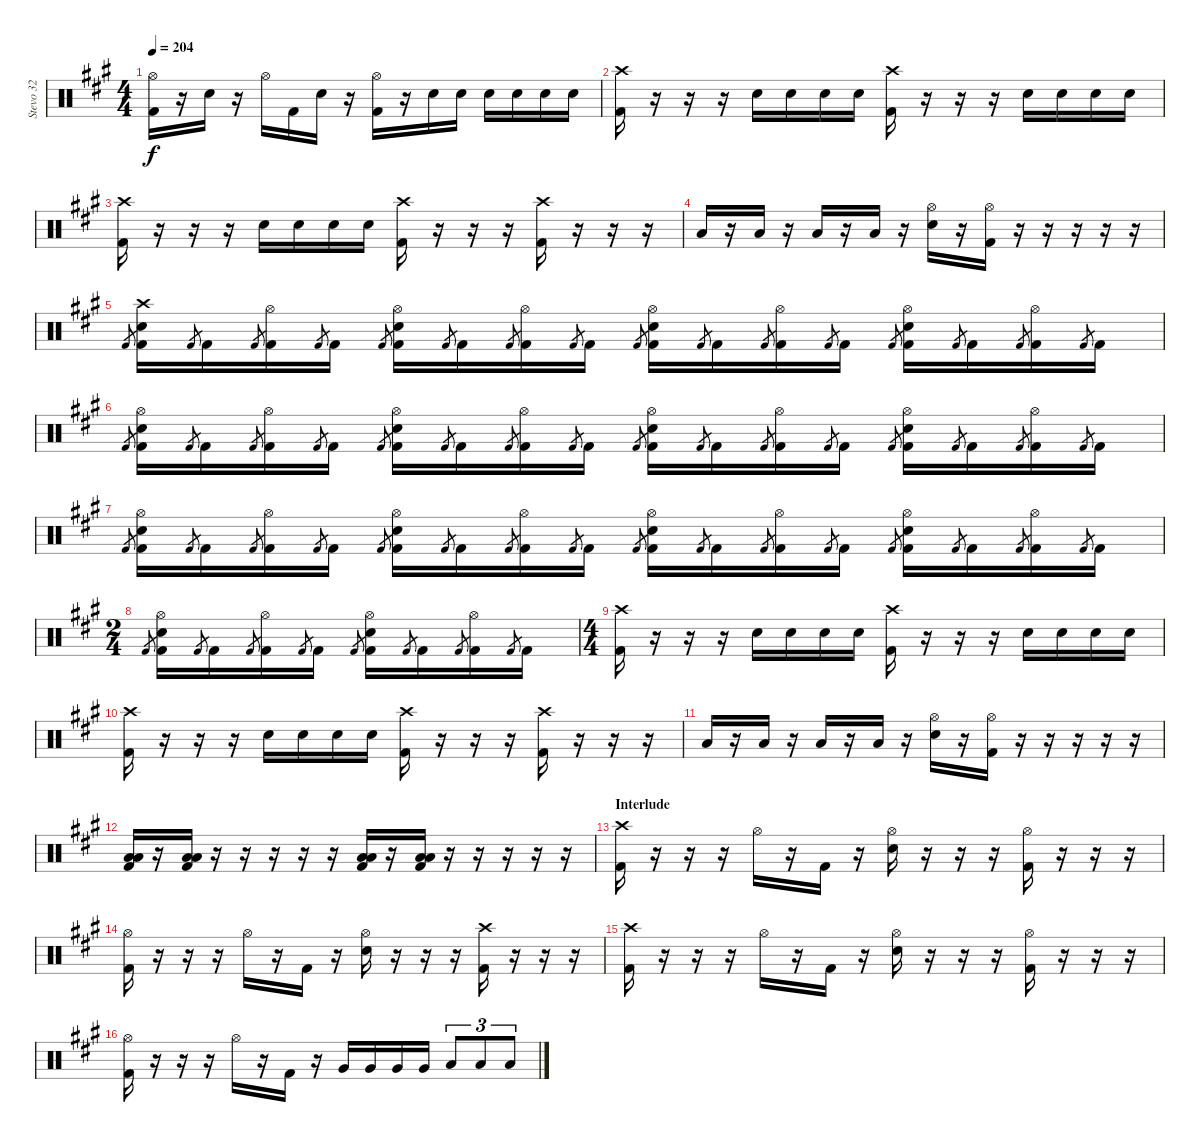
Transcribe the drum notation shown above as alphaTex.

\track ("Stevo 32" "Stevo 32") {instrument percussion}
\staff {score}
\articulation defaults
\ts (4 4)
\tempo 204
\clef neutral
\ks a
("Hi-Hat (open)" "Kick (hit) 2").16{dy f} r.16 "Snare (hit) 2".16 r.16 "Hi-Hat (open)".16 "Kick (hit) 2".16 "Snare (hit) 2".16 r.16 ("Hi-Hat (open)" "Kick (hit) 2").16 r.16 "Snare (hit) 2".16 "Snare (hit) 2".16 "Snare (hit) 2".16 "Snare (hit) 2".16 "Snare (hit) 2".16 "Snare (hit) 2".16 |
("Crash high (hit)" "Kick (hit) 2").16 r.16 r.16 r.16 "Snare (hit) 2".16 "Snare (hit) 2".16 "Snare (hit) 2".16 "Snare (hit) 2".16 ("Crash high (hit)" "Kick (hit) 2").16 r.16 r.16 r.16 "Snare (hit) 2".16 "Snare (hit) 2".16 "Snare (hit) 2".16 "Snare (hit) 2".16 |
("Crash high (hit)" "Kick (hit) 2").16 r.16 r.16 r.16 "Snare (hit) 2".16 "Snare (hit) 2".16 "Snare (hit) 2".16 "Snare (hit) 2".16 ("Crash high (hit)" "Kick (hit) 2").16 r.16 r.16 r.16 ("Crash high (hit)" "Kick (hit) 2").16 r.16 r.16 r.16 |
"Low Floor Tom (hit)".16 r.16 "Low Floor Tom (hit)".16 r.16 "Low Floor Tom (hit)".16 r.16 "Low Floor Tom (hit)".16 r.16 ("Hi-Hat (open)" "Snare (hit) 2").16 r.16 ("Hi-Hat (open)" "Kick (hit) 2").16 r.16 r.16 r.16 r.16 r.16 |
"Kick (hit) 2".8{gr} ("Crash high (hit)" "Snare (hit) 2" "Kick (hit) 2").16 "Kick (hit) 2".8{gr} "Kick (hit) 2".16 "Kick (hit) 2".8{gr} ("Hi-Hat (open)" "Kick (hit) 2").16 "Kick (hit) 2".8{gr} "Kick (hit) 2".16 "Kick (hit) 2".8{gr} ("Hi-Hat (open)" "Snare (hit) 2" "Kick (hit) 2").16 "Kick (hit) 2".8{gr} "Kick (hit) 2".16 "Kick (hit) 2".8{gr} ("Hi-Hat (open)" "Kick (hit) 2").16 "Kick (hit) 2".8{gr} "Kick (hit) 2".16 "Kick (hit) 2".8{gr} ("Hi-Hat (open)" "Snare (hit) 2" "Kick (hit) 2").16 "Kick (hit) 2".8{gr} "Kick (hit) 2".16 "Kick (hit) 2".8{gr} ("Hi-Hat (open)" "Kick (hit) 2").16 "Kick (hit) 2".8{gr} "Kick (hit) 2".16 "Kick (hit) 2".8{gr} ("Hi-Hat (open)" "Snare (hit) 2" "Kick (hit) 2").16 "Kick (hit) 2".8{gr} "Kick (hit) 2".16 "Kick (hit) 2".8{gr} ("Hi-Hat (open)" "Kick (hit) 2").16 "Kick (hit) 2".8{gr} "Kick (hit) 2".16 |
"Kick (hit) 2".8{gr} ("Hi-Hat (open)" "Snare (hit) 2" "Kick (hit) 2").16 "Kick (hit) 2".8{gr} "Kick (hit) 2".16 "Kick (hit) 2".8{gr} ("Hi-Hat (open)" "Kick (hit) 2").16 "Kick (hit) 2".8{gr} "Kick (hit) 2".16 "Kick (hit) 2".8{gr} ("Hi-Hat (open)" "Snare (hit) 2" "Kick (hit) 2").16 "Kick (hit) 2".8{gr} "Kick (hit) 2".16 "Kick (hit) 2".8{gr} ("Hi-Hat (open)" "Kick (hit) 2").16 "Kick (hit) 2".8{gr} "Kick (hit) 2".16 "Kick (hit) 2".8{gr} ("Hi-Hat (open)" "Snare (hit) 2" "Kick (hit) 2").16 "Kick (hit) 2".8{gr} "Kick (hit) 2".16 "Kick (hit) 2".8{gr} ("Hi-Hat (open)" "Kick (hit) 2").16 "Kick (hit) 2".8{gr} "Kick (hit) 2".16 "Kick (hit) 2".8{gr} ("Hi-Hat (open)" "Snare (hit) 2" "Kick (hit) 2").16 "Kick (hit) 2".8{gr} "Kick (hit) 2".16 "Kick (hit) 2".8{gr} ("Hi-Hat (open)" "Kick (hit) 2").16 "Kick (hit) 2".8{gr} "Kick (hit) 2".16 |
"Kick (hit) 2".8{gr} ("Hi-Hat (open)" "Snare (hit) 2" "Kick (hit) 2").16 "Kick (hit) 2".8{gr} "Kick (hit) 2".16 "Kick (hit) 2".8{gr} ("Hi-Hat (open)" "Kick (hit) 2").16 "Kick (hit) 2".8{gr} "Kick (hit) 2".16 "Kick (hit) 2".8{gr} ("Hi-Hat (open)" "Snare (hit) 2" "Kick (hit) 2").16 "Kick (hit) 2".8{gr} "Kick (hit) 2".16 "Kick (hit) 2".8{gr} ("Hi-Hat (open)" "Kick (hit) 2").16 "Kick (hit) 2".8{gr} "Kick (hit) 2".16 "Kick (hit) 2".8{gr} ("Hi-Hat (open)" "Snare (hit) 2" "Kick (hit) 2").16 "Kick (hit) 2".8{gr} "Kick (hit) 2".16 "Kick (hit) 2".8{gr} ("Hi-Hat (open)" "Kick (hit) 2").16 "Kick (hit) 2".8{gr} "Kick (hit) 2".16 "Kick (hit) 2".8{gr} ("Hi-Hat (open)" "Snare (hit) 2" "Kick (hit) 2").16 "Kick (hit) 2".8{gr} "Kick (hit) 2".16 "Kick (hit) 2".8{gr} ("Hi-Hat (open)" "Kick (hit) 2").16 "Kick (hit) 2".8{gr} "Kick (hit) 2".16 |
\ts (2 4)
"Kick (hit) 2".8{gr} ("Hi-Hat (open)" "Snare (hit) 2" "Kick (hit) 2").16 "Kick (hit) 2".8{gr} "Kick (hit) 2".16 "Kick (hit) 2".8{gr} ("Hi-Hat (open)" "Kick (hit) 2").16 "Kick (hit) 2".8{gr} "Kick (hit) 2".16 "Kick (hit) 2".8{gr} ("Hi-Hat (open)" "Snare (hit) 2" "Kick (hit) 2").16 "Kick (hit) 2".8{gr} "Kick (hit) 2".16 "Kick (hit) 2".8{gr} ("Hi-Hat (open)" "Kick (hit) 2").16 "Kick (hit) 2".8{gr} "Kick (hit) 2".16 |
\ts (4 4)
("Crash high (hit)" "Kick (hit) 2").16 r.16 r.16 r.16 "Snare (hit) 2".16 "Snare (hit) 2".16 "Snare (hit) 2".16 "Snare (hit) 2".16 ("Crash high (hit)" "Kick (hit) 2").16 r.16 r.16 r.16 "Snare (hit) 2".16 "Snare (hit) 2".16 "Snare (hit) 2".16 "Snare (hit) 2".16 |
("Crash high (hit)" "Kick (hit) 2").16 r.16 r.16 r.16 "Snare (hit) 2".16 "Snare (hit) 2".16 "Snare (hit) 2".16 "Snare (hit) 2".16 ("Crash high (hit)" "Kick (hit) 2").16 r.16 r.16 r.16 ("Crash high (hit)" "Kick (hit) 2").16 r.16 r.16 r.16 |
"Low Floor Tom (hit)".16 r.16 "Low Floor Tom (hit)".16 r.16 "Low Floor Tom (hit)".16 r.16 "Low Floor Tom (hit)".16 r.16 ("Hi-Hat (open)" "Snare (hit) 2").16 r.16 ("Hi-Hat (open)" "Kick (hit) 2").16 r.16 r.16 r.16 r.16 r.16 |
("Low Tom (hit)" "Low Floor Tom (hit)" "Kick (hit) 2").16 r.16 ("Low Tom (hit)" "Low Floor Tom (hit)" "Kick (hit) 2").16 r.16 r.16 r.16 r.16 r.16 ("Low Tom (hit)" "Low Floor Tom (hit)" "Kick (hit) 2").16 r.16 ("Low Tom (hit)" "Low Floor Tom (hit)" "Kick (hit) 2").16 r.16 r.16 r.16 r.16 r.16 |
\section ("" "Interlude")
("Crash high (hit)" "Kick (hit) 2").16 r.16 r.16 r.16 "Hi-Hat (open)".16 r.16 "Kick (hit) 2".16 r.16 ("Hi-Hat (open)" "Snare (hit) 2").16 r.16 r.16 r.16 ("Hi-Hat (open)" "Kick (hit) 2").16 r.16 r.16 r.16 |
("Hi-Hat (open)" "Kick (hit) 2").16 r.16 r.16 r.16 "Hi-Hat (open)".16 r.16 "Kick (hit) 2".16 r.16 ("Hi-Hat (open)" "Snare (hit) 2").16 r.16 r.16 r.16 ("Crash high (hit)" "Kick (hit) 2").16 r.16 r.16 r.16 |
("Crash high (hit)" "Kick (hit) 2").16 r.16 r.16 r.16 "Hi-Hat (open)".16 r.16 "Kick (hit) 2".16 r.16 ("Hi-Hat (open)" "Snare (hit) 2").16 r.16 r.16 r.16 ("Hi-Hat (open)" "Kick (hit) 2").16 r.16 r.16 r.16 |
("Hi-Hat (open)" "Kick (hit) 2").16 r.16 r.16 r.16 "Hi-Hat (open)".16 r.16 "Kick (hit) 2".16 r.16 "Very Low Tom (hit)".16 "Very Low Tom (hit)".16 "Very Low Tom (hit)".16 "Very Low Tom (hit)".16 "Low Tom (hit)".8{tu (3 2)} "Low Tom (hit)".8{tu (3 2)} "Low Tom (hit)".8{tu (3 2)}
